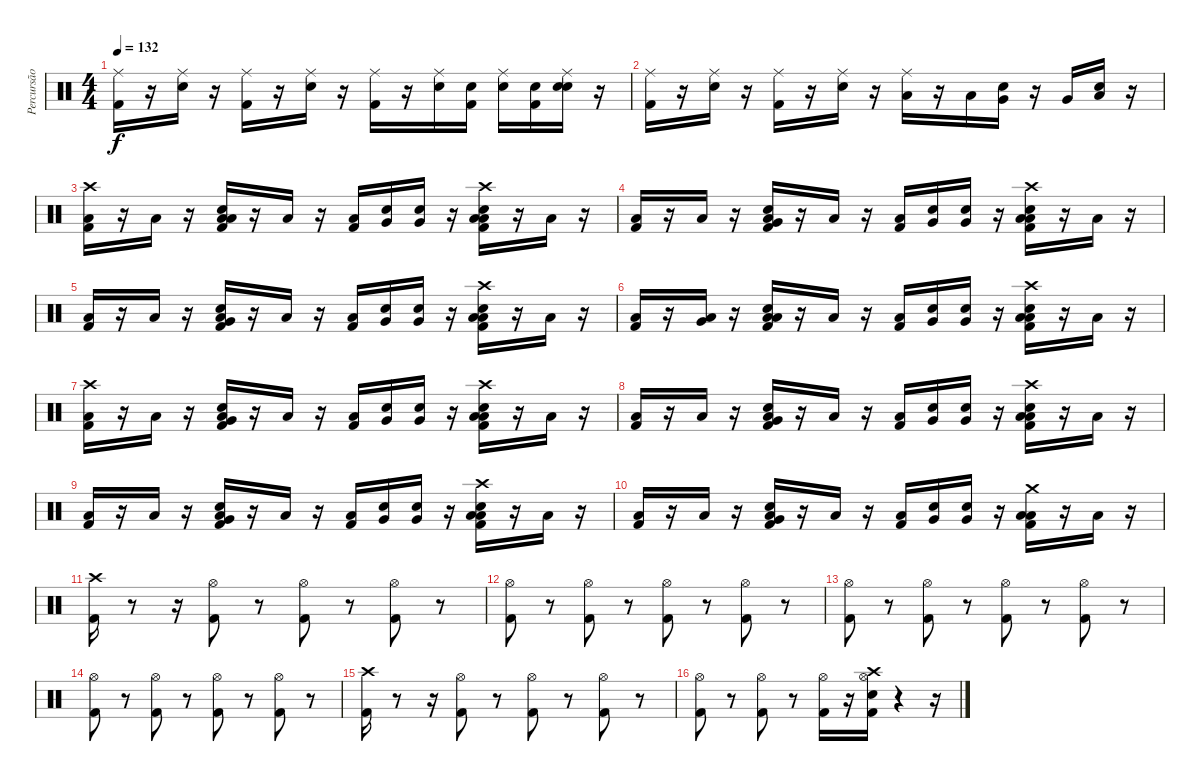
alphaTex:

\track ("Percursão" "Percursão") {instrument percussion}
\staff {score}
\articulation defaults
\ts (4 4)
\tempo 132
\clef neutral
\ks c
("Ride (middle)" "Kick (hit) 2").16{dy f} r.16 ("Ride (middle)" "Electric Snare (hit)").16 r.16 ("Ride (middle)" "Kick (hit) 2").16 r.16 ("Ride (middle)" "Electric Snare (hit)").16 r.16 ("Ride (middle)" "Kick (hit) 2").16 r.16 ("Ride (middle)" "Electric Snare (hit)").16 ("Snare (hit)" "Kick (hit) 2").16 ("Snare (hit)" "Ride (middle)").16 ("Snare (hit)" "Kick (hit) 2").16 ("Snare (hit)" "Ride (middle)" "Electric Snare (hit)").16 r.16 |
("Ride (middle)" "Kick (hit) 2").16 r.16 ("Ride (middle)" "Electric Snare (hit)").16 r.16 ("Ride (middle)" "Kick (hit) 2").16 r.16 ("Ride (middle)" "Electric Snare (hit)").16 r.16 ("Ride (middle)" "Low Tom (hit)").16 r.16 "Low Tom (hit)".16 ("Snare (hit)" "Very Low Tom (hit)").16 r.16 "Very Low Tom (hit)".16 ("Snare (hit)" "Low Floor Tom (hit)").16 r.16 |
("Crash high (hit)" "Kick (hit) 2" "Low Tom (hit)").16 r.16 "Low Tom (hit)".16 r.16 ("Kick (hit) 2" "Low Floor Tom (hit)" "Low Tom (hit)" "Snare (hit) 2").16 r.16 "Low Tom (hit)".16 r.16 ("Kick (hit) 2" "Low Tom (hit)").16 ("Snare (hit)" "Very Low Tom (hit)").16 ("Snare (hit)" "Very Low Tom (hit)").16 r.16 ("Kick (hit) 2" "Snare (hit) 2" "Crash high (hit)" "Low Tom (hit)" "Low Floor Tom (hit)").16 r.16 "Low Tom (hit)".16 r.16 |
("Kick (hit) 2" "Low Tom (hit)").16 r.16 "Low Tom (hit)".16 r.16 ("Kick (hit) 2" "Low Tom (hit)" "Very Low Tom (hit)" "Snare (hit) 2").16 r.16 "Low Tom (hit)".16 r.16 ("Kick (hit) 2" "Low Tom (hit)").16 ("Snare (hit)" "Very Low Tom (hit)").16 ("Snare (hit)" "Very Low Tom (hit)").16 r.16 ("Kick (hit) 2" "Snare (hit) 2" "Crash high (hit)" "Low Floor Tom (hit)" "Low Tom (hit)").16 r.16 "Low Tom (hit)".16 r.16 |
("Kick (hit) 2" "Low Tom (hit)").16 r.16 "Low Tom (hit)".16 r.16 ("Kick (hit) 2" "Low Tom (hit)" "Very Low Tom (hit)" "Snare (hit) 2").16 r.16 "Low Tom (hit)".16 r.16 ("Kick (hit) 2" "Low Tom (hit)").16 ("Snare (hit)" "Very Low Tom (hit)").16 ("Snare (hit)" "Very Low Tom (hit)").16 r.16 ("Kick (hit) 2" "Snare (hit) 2" "Crash high (hit)" "Low Tom (hit)" "Low Floor Tom (hit)").16 r.16 "Low Tom (hit)".16 r.16 |
("Kick (hit) 2" "Low Tom (hit)").16 r.16 ("Low Tom (hit)" "Very Low Tom (hit)").16 r.16 ("Kick (hit) 2" "Low Floor Tom (hit)" "Low Tom (hit)" "Snare (hit) 2").16 r.16 "Low Tom (hit)".16 r.16 ("Kick (hit) 2" "Low Tom (hit)").16 ("Snare (hit)" "Very Low Tom (hit)").16 ("Snare (hit)" "Very Low Tom (hit)").16 r.16 ("Kick (hit) 2" "Crash high (hit)" "Snare (hit) 2" "Low Tom (hit)" "Low Floor Tom (hit)").16 r.16 "Low Tom (hit)".16 r.16 |
("Crash high (hit)" "Kick (hit) 2" "Low Tom (hit)").16 r.16 "Low Tom (hit)".16 r.16 ("Kick (hit) 2" "Very Low Tom (hit)" "Low Tom (hit)" "Snare (hit) 2").16 r.16 "Low Tom (hit)".16 r.16 ("Kick (hit) 2" "Low Tom (hit)").16 ("Snare (hit)" "Very Low Tom (hit)").16 ("Snare (hit)" "Very Low Tom (hit)").16 r.16 ("Kick (hit) 2" "Snare (hit) 2" "Crash high (hit)" "Low Tom (hit)" "Low Floor Tom (hit)").16 r.16 "Low Tom (hit)".16 r.16 |
("Kick (hit) 2" "Low Tom (hit)").16 r.16 "Low Tom (hit)".16 r.16 ("Kick (hit) 2" "Very Low Tom (hit)" "Low Tom (hit)" "Snare (hit) 2").16 r.16 "Low Tom (hit)".16 r.16 ("Kick (hit) 2" "Low Tom (hit)").16 ("Snare (hit)" "Very Low Tom (hit)").16 ("Snare (hit)" "Very Low Tom (hit)").16 r.16 ("Kick (hit) 2" "Snare (hit) 2" "Crash high (hit)" "Low Tom (hit)" "Low Floor Tom (hit)").16 r.16 "Low Tom (hit)".16 r.16 |
("Kick (hit) 2" "Low Tom (hit)").16 r.16 "Low Tom (hit)".16 r.16 ("Kick (hit) 2" "Low Tom (hit)" "Very Low Tom (hit)" "Snare (hit) 2").16 r.16 "Low Tom (hit)".16 r.16 ("Kick (hit) 2" "Low Tom (hit)").16 ("Snare (hit)" "Very Low Tom (hit)").16 ("Snare (hit)" "Very Low Tom (hit)").16 r.16 ("Kick (hit) 2" "Snare (hit) 2" "Crash high (hit)" "Low Tom (hit)" "Low Floor Tom (hit)").16 r.16 "Low Tom (hit)".16 r.16 |
("Kick (hit) 2" "Low Tom (hit)").16 r.16 "Low Tom (hit)".16 r.16 ("Kick (hit) 2" "Very Low Tom (hit)" "Low Tom (hit)" "Snare (hit) 2").16 r.16 "Low Tom (hit)".16 r.16 ("Kick (hit) 2" "Low Tom (hit)").16 ("Snare (hit)" "Very Low Tom (hit)").16 ("Snare (hit)" "Very Low Tom (hit)").16 r.16 ("Kick (hit) 2" "Low Tom (hit)" "Low Floor Tom (hit)" "Crash medium (hit)").16 r.16 "Low Tom (hit)".16 r.16 |
("Crash high (hit)" "Kick (hit) 2").16 r.8 r.16 ("Kick (hit) 2" "Hi-Hat (open)").8 r.8 ("Kick (hit) 2" "Hi-Hat (open)").8 r.8 ("Kick (hit) 2" "Hi-Hat (open)").8 r.8 |
("Kick (hit) 2" "Hi-Hat (open)").8 r.8 ("Kick (hit) 2" "Hi-Hat (open)").8 r.8 ("Kick (hit) 2" "Hi-Hat (open)").8 r.8 ("Kick (hit) 2" "Hi-Hat (open)").8 r.8 |
("Kick (hit) 2" "Hi-Hat (open)").8 r.8 ("Kick (hit) 2" "Hi-Hat (open)").8 r.8 ("Kick (hit) 2" "Hi-Hat (open)").8 r.8 ("Kick (hit) 2" "Hi-Hat (open)").8 r.8 |
("Kick (hit) 2" "Hi-Hat (open)").8 r.8 ("Kick (hit) 2" "Hi-Hat (open)").8 r.8 ("Kick (hit) 2" "Hi-Hat (open)").8 r.8 ("Kick (hit) 2" "Hi-Hat (open)").8 r.8 |
("Crash high (hit)" "Kick (hit) 2").16 r.8 r.16 ("Kick (hit) 2" "Hi-Hat (open)").8 r.8 ("Kick (hit) 2" "Hi-Hat (open)").8 r.8 ("Kick (hit) 2" "Hi-Hat (open)").8 r.8 |
("Kick (hit) 2" "Hi-Hat (open)").8 r.8 ("Kick (hit) 2" "Hi-Hat (open)").8 r.8 ("Kick (hit) 2" "Hi-Hat (open)").16 r.16 ("Crash high (hit)" "Kick (hit) 2" "Hi-Hat (open)" "Snare (hit) 2").16 r.4 r.16
